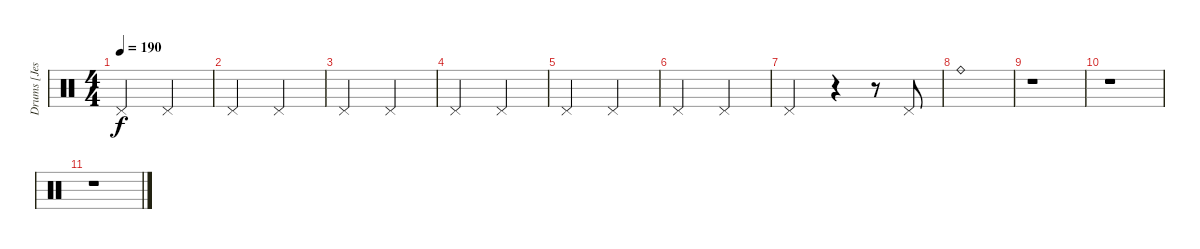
\track ("Drums [Jesse Ingelevics]" "Drums [Jes") {instrument percussion}
\staff {score}
\articulation defaults
\ts (4 4)
\tempo 190
\clef neutral
\ks c "Pedal Hi-Hat (hit)".2{dy f} "Pedal Hi-Hat (hit)".2
|
"Pedal Hi-Hat (hit)".2 "Pedal Hi-Hat (hit)".2 |
"Pedal Hi-Hat (hit)".2 "Pedal Hi-Hat (hit)".2 |
"Pedal Hi-Hat (hit)".2 "Pedal Hi-Hat (hit)".2 |
"Pedal Hi-Hat (hit)".2 "Pedal Hi-Hat (hit)".2 |
"Pedal Hi-Hat (hit)".2 "Pedal Hi-Hat (hit)".2 |
"Pedal Hi-Hat (hit)".2 r.4 r.8 "Pedal Hi-Hat (hit)".8 |
"Ride (bell)".1 |
r.1 |
r.1 |
r.1
